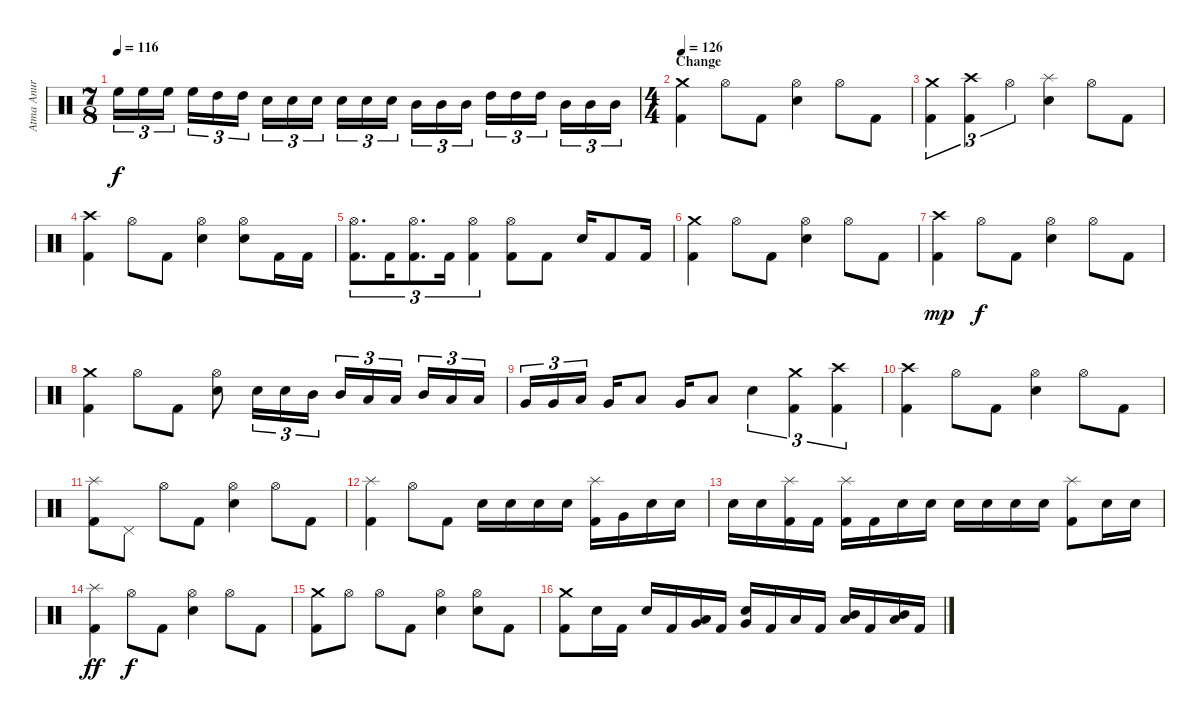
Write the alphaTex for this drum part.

\track ("Atma Anur " "Atma Anur ") {instrument percussion}
\staff {score}
\articulation defaults
\ts (7 8)
\tempo 116
\clef neutral
\ks c "High Floor Tom (hit)".16{tu (3 2) dy f} "High Floor Tom (hit)".16{tu (3 2)} "High Floor Tom (hit)".16{tu (3 2)} "High Floor Tom (hit)".16{tu (3 2)} "High Tom (hit)".16{tu (3 2)} "High Tom (hit)".16{tu (3 2)} "Snare (hit) 2".16{tu (3 2)} "Snare (hit) 2".16{tu (3 2)} "Snare (hit) 2".16{tu (3 2)} "Snare (hit) 2".16{tu (3 2)} "Snare (hit) 2".16{tu (3 2)} "Snare (hit) 2".16{tu (3 2)} "Mid Tom (hit)".16{tu (3 2)} "Mid Tom (hit)".16{tu (3 2)} "Mid Tom (hit)".16{tu (3 2)} "High Tom (hit)".16{tu (3 2)} "High Tom (hit)".16{tu (3 2)} "High Tom (hit)".16{tu (3 2)} "Mid Tom (hit)".16{tu (3 2)} "Mid Tom (hit)".16{tu (3 2)} "Mid Tom (hit)".16{tu (3 2)}
|
\ts (4 4)
\section ("" "Change")
\tempo 126
("Crash medium (hit)" "Kick (hit) 2").4 "Hi-Hat (open)".8 "Kick (hit) 2".8 ("Hi-Hat (open)" "Snare (hit) 2").4 "Hi-Hat (open)".8 "Kick (hit) 2".8 |
("Crash medium (hit)" "Kick (hit) 2").4{tu (3 2)} ("Crash high (hit)" "Kick (hit) 2").4{tu (3 2)} "Hi-Hat (open)".4{tu (3 2)} ("Splash (hit)" "Snare (hit) 2").4 "Hi-Hat (open)".8 "Kick (hit) 2".8 |
("Crash high (hit)" "Kick (hit) 2").4 "Hi-Hat (open)".8 "Kick (hit) 2".8 ("Hi-Hat (open)" "Snare (hit) 2").4 ("Hi-Hat (open)" "Snare (hit) 2").8 "Kick (hit) 2".16 "Kick (hit) 2".16 |
("Hi-Hat (open)" "Kick (hit) 2").8{d tu (3 2)} "Kick (hit) 2".16{tu (3 2)} ("Hi-Hat (open)" "Kick (hit) 2").8{d tu (3 2)} "Kick (hit) 2".16{tu (3 2)} ("Hi-Hat (open)" "Kick (hit) 2").4{tu (3 2)} ("Hi-Hat (open)" "Kick (hit) 2").8 "Kick (hit) 2".8 "Snare (hit) 2".16 "Kick (hit) 2".8 "Kick (hit) 2".16 |
("Crash medium (hit)" "Kick (hit) 2").4 "Hi-Hat (open)".8 "Kick (hit) 2".8 ("Hi-Hat (open)" "Snare (hit) 2").4 "Hi-Hat (open)".8 "Kick (hit) 2".8 |
("Crash high (hit)" "Kick (hit) 2").4{dy mp} "Hi-Hat (open)".8{dy f} "Kick (hit) 2".8 ("Hi-Hat (open)" "Snare (hit) 2").4 "Hi-Hat (open)".8 "Kick (hit) 2".8 |
("Crash medium (hit)" "Kick (hit) 2").4 "Hi-Hat (open)".8 "Kick (hit) 2".8 ("Hi-Hat (open)" "Snare (hit) 2").8 "Snare (hit) 2".16{tu (3 2)} "Snare (hit) 2".16{tu (3 2)} "Mid Tom (hit)".16{tu (3 2)} "Mid Tom (hit)".16{tu (3 2)} "Low Tom (hit)".16{tu (3 2)} "Low Tom (hit)".16{tu (3 2)} "Mid Tom (hit)".16{tu (3 2)} "Low Tom (hit)".16{tu (3 2)} "Low Tom (hit)".16{tu (3 2)} |
"Very Low Tom (hit)".16{tu (3 2)} "Very Low Tom (hit)".16{tu (3 2)} "Low Tom (hit)".16{tu (3 2)} "Very Low Tom (hit)".16 "Low Floor Tom (hit)".8 "Very Low Tom (hit)".16 "Low Floor Tom (hit)".8 "Snare (hit) 2".4{tu (3 2)} ("Crash medium (hit)" "Kick (hit) 2").4{tu (3 2)} ("Crash high (hit)" "Kick (hit) 2").4{tu (3 2)} |
("Crash high (hit)" "Kick (hit) 2").4 "Hi-Hat (open)".8 "Kick (hit) 2".8 ("Hi-Hat (open)" "Snare (hit) 2").4 "Hi-Hat (open)".8 "Kick (hit) 2".8 |
("Splash (hit)" "Kick (hit) 2").8 "Pedal Hi-Hat (hit)".8 "Hi-Hat (open)".8 "Kick (hit) 2".8 ("Hi-Hat (open)" "Snare (hit) 2").4 "Hi-Hat (open)".8 "Kick (hit) 2".8 |
("Splash (hit)" "Kick (hit) 2").4 "Hi-Hat (open)".8 "Kick (hit) 2".8 "Snare (hit) 2".16 "Snare (hit) 2".16 "Snare (hit) 2".16 "Snare (hit) 2".16 ("Splash (hit)" "Kick (hit) 2").16 "Very Low Tom (hit)".16 "Snare (hit) 2".16 "Snare (hit) 2".16 |
"Snare (hit) 2".16 "Snare (hit) 2".16 ("Splash (hit)" "Kick (hit) 2").16 "Kick (hit) 2".16 ("Splash (hit)" "Kick (hit) 2").16 "Kick (hit) 2".16 "Snare (hit) 2".16 "Snare (hit) 2".16 "Snare (hit) 2".16 "Snare (hit) 2".16 "Snare (hit) 2".16 "Snare (hit) 2".16 ("Splash (hit)" "Kick (hit) 2").8 "Snare (hit) 2".16 "Snare (hit) 2".16 |
("Splash (hit)" "Kick (hit) 2").4{dy ff} "Hi-Hat (open)".8{dy f} "Kick (hit) 2".8 ("Hi-Hat (open)" "Snare (hit) 2").4 "Hi-Hat (open)".8 "Kick (hit) 2".8 |
("Crash medium (hit)" "Kick (hit) 2").8 "Hi-Hat (open)".8 "Hi-Hat (open)".8 "Kick (hit) 2".8 ("Hi-Hat (open)" "Snare (hit) 2").4 ("Hi-Hat (open)" "Snare (hit) 2").8 "Kick (hit) 2".8 |
("Crash medium (hit)" "Kick (hit) 2").8 "Snare (hit) 2".16 "Kick (hit) 2".16 "Snare (hit) 2".16 "Kick (hit) 2".16 ("Low Tom (hit)" "Very Low Tom (hit)").16 "Kick (hit) 2".16 ("Very Low Tom (hit)" "Electric Snare (hit)").16 "Kick (hit) 2".16 "Low Floor Tom (hit)".16 "Kick (hit) 2".16 ("Mid Tom (hit)" "Low Tom (hit)").16 "Kick (hit) 2".16 ("Mid Tom (hit)" "Low Tom (hit)").16 "Kick (hit) 2".16
